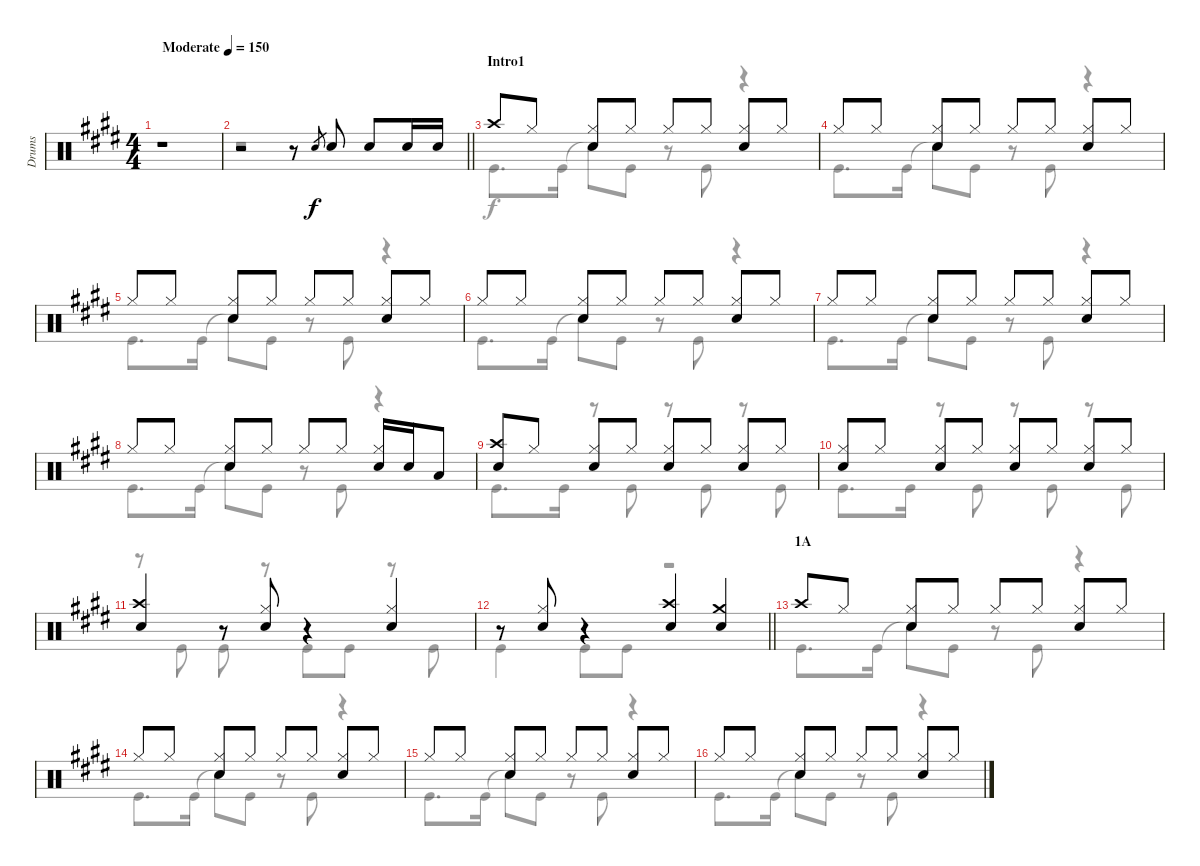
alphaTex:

\track ("Drums" "Drums") {instrument percussion}
\staff {score}
\articulation defaults
\voice
\ts (4 4)
\tempo (150 "Moderate")
\clef neutral
\ks e
r.1{dy f} |
\barLineRight lightlight
r.2 r.8 "Snare (hit) 2".8{gr} "Snare (hit) 2".8 "Snare (hit) 2".8 "Snare (hit) 2".16 "Snare (hit) 2".16 |
\section ("" "Intro1")
"Crash high (hit)".8 "Hi-Hat (closed)".8 ("Hi-Hat (closed)" "Snare (hit) 2").8 "Hi-Hat (closed)".8 "Hi-Hat (closed)".8 "Hi-Hat (closed)".8 ("Hi-Hat (closed)" "Snare (hit) 2").8 "Hi-Hat (closed)".8 |
"Hi-Hat (closed)".8 "Hi-Hat (closed)".8 ("Hi-Hat (closed)" "Snare (hit) 2").8 "Hi-Hat (closed)".8 "Hi-Hat (closed)".8 "Hi-Hat (closed)".8 ("Hi-Hat (closed)" "Snare (hit) 2").8 "Hi-Hat (closed)".8 |
"Hi-Hat (closed)".8 "Hi-Hat (closed)".8 ("Hi-Hat (closed)" "Snare (hit) 2").8 "Hi-Hat (closed)".8 "Hi-Hat (closed)".8 "Hi-Hat (closed)".8 ("Hi-Hat (closed)" "Snare (hit) 2").8 "Hi-Hat (closed)".8 |
"Hi-Hat (closed)".8 "Hi-Hat (closed)".8 ("Hi-Hat (closed)" "Snare (hit) 2").8 "Hi-Hat (closed)".8 "Hi-Hat (closed)".8 "Hi-Hat (closed)".8 ("Hi-Hat (closed)" "Snare (hit) 2").8 "Hi-Hat (closed)".8 |
"Hi-Hat (closed)".8 "Hi-Hat (closed)".8 ("Hi-Hat (closed)" "Snare (hit) 2").8 "Hi-Hat (closed)".8 "Hi-Hat (closed)".8 "Hi-Hat (closed)".8 ("Hi-Hat (closed)" "Snare (hit) 2").8 "Hi-Hat (closed)".8 |
"Hi-Hat (closed)".8 "Hi-Hat (closed)".8 ("Hi-Hat (closed)" "Snare (hit) 2").8 "Hi-Hat (closed)".8 "Hi-Hat (closed)".8 "Hi-Hat (closed)".8 ("Hi-Hat (closed)" "Snare (hit) 2").16 "Snare (hit) 2".16 "Low Tom (hit)".8 |
("Crash high (hit)" "Snare (hit) 2").8 "Hi-Hat (closed)".8 ("Hi-Hat (closed)" "Snare (hit) 2").8 "Hi-Hat (closed)".8 ("Hi-Hat (closed)" "Snare (hit) 2").8 "Hi-Hat (closed)".8 ("Hi-Hat (closed)" "Snare (hit) 2").8 "Hi-Hat (closed)".8 |
("Hi-Hat (closed)" "Snare (hit) 2").8 "Hi-Hat (closed)".8 ("Hi-Hat (closed)" "Snare (hit) 2").8 "Hi-Hat (closed)".8 ("Hi-Hat (closed)" "Snare (hit) 2").8 "Hi-Hat (closed)".8 ("Hi-Hat (closed)" "Snare (hit) 2").8 "Hi-Hat (closed)".8 |
("Crash high (hit)" "Snare (hit) 2").4 r.8 ("Hi-Hat (closed)" "Snare (hit) 2").8 r.4 ("Hi-Hat (closed)" "Snare (hit) 2").4 |
\barLineRight lightlight
r.8 ("Hi-Hat (closed)" "Snare (hit) 2").8 r.4 ("Crash high (hit)" "Snare (hit) 2").4 ("Crash medium (hit)" "Snare (hit) 2").4 |
\section ("" "1A")
"Crash high (hit)".8 "Hi-Hat (closed)".8 ("Hi-Hat (closed)" "Snare (hit) 2").8 "Hi-Hat (closed)".8 "Hi-Hat (closed)".8 "Hi-Hat (closed)".8 ("Hi-Hat (closed)" "Snare (hit) 2").8 "Hi-Hat (closed)".8 |
"Hi-Hat (closed)".8 "Hi-Hat (closed)".8 ("Hi-Hat (closed)" "Snare (hit) 2").8 "Hi-Hat (closed)".8 "Hi-Hat (closed)".8 "Hi-Hat (closed)".8 ("Hi-Hat (closed)" "Snare (hit) 2").8 "Hi-Hat (closed)".8 |
"Hi-Hat (closed)".8 "Hi-Hat (closed)".8 ("Hi-Hat (closed)" "Snare (hit) 2").8 "Hi-Hat (closed)".8 "Hi-Hat (closed)".8 "Hi-Hat (closed)".8 ("Hi-Hat (closed)" "Snare (hit) 2").8 "Hi-Hat (closed)".8 |
"Hi-Hat (closed)".8 "Hi-Hat (closed)".8 ("Hi-Hat (closed)" "Snare (hit) 2").8 "Hi-Hat (closed)".8 "Hi-Hat (closed)".8 "Hi-Hat (closed)".8 ("Hi-Hat (closed)" "Snare (hit) 2").8 "Hi-Hat (closed)".8
\voice
\clef neutral
\ottava regular
\simile none
\ks e
r.1{dy f} |
\barLineRight lightlight
r.1 |
"Kick (hit)".8{d} "Kick (hit)".16 "Snare (hit)"{t}.8 "Kick (hit)".8 r.8 "Kick (hit)".8 r.4 |
"Kick (hit)".8{d} "Kick (hit)".16 "Snare (hit)"{t}.8 "Kick (hit)".8 r.8 "Kick (hit)".8 r.4 |
"Kick (hit)".8{d} "Kick (hit)".16 "Snare (hit)"{t}.8 "Kick (hit)".8 r.8 "Kick (hit)".8 r.4 |
"Kick (hit)".8{d} "Kick (hit)".16 "Snare (hit)"{t}.8 "Kick (hit)".8 r.8 "Kick (hit)".8 r.4 |
"Kick (hit)".8{d} "Kick (hit)".16 "Snare (hit)"{t}.8 "Kick (hit)".8 r.8 "Kick (hit)".8 r.4 |
"Kick (hit)".8{d} "Kick (hit)".16 "Snare (hit)"{t}.8 "Kick (hit)".8 r.8 "Kick (hit)".8 r.4 |
"Kick (hit)".8{d} "Kick (hit)".16 r.8 "Kick (hit)".8 r.8 "Kick (hit)".8 r.8 "Kick (hit)".8 |
"Kick (hit)".8{d} "Kick (hit)".16 r.8 "Kick (hit)".8 r.8 "Kick (hit)".8 r.8 "Kick (hit)".8 |
r.8 "Kick (hit)".8 "Kick (hit)".8 r.8 "Kick (hit)".8 "Kick (hit)".8 r.8 "Kick (hit)".8 |
\barLineRight lightlight "Kick (hit)".4 "Kick (hit)".8 "Kick (hit)".8
r.2 |
"Kick (hit)".8{d} "Kick (hit)".16 "Snare (hit)"{t}.8 "Kick (hit)".8 r.8 "Kick (hit)".8 r.4 |
"Kick (hit)".8{d} "Kick (hit)".16 "Snare (hit)"{t}.8 "Kick (hit)".8 r.8 "Kick (hit)".8 r.4 |
"Kick (hit)".8{d} "Kick (hit)".16 "Snare (hit)"{t}.8 "Kick (hit)".8 r.8 "Kick (hit)".8 r.4 |
"Kick (hit)".8{d} "Kick (hit)".16 "Snare (hit)"{t}.8 "Kick (hit)".8 r.8 "Kick (hit)".8 r.4
